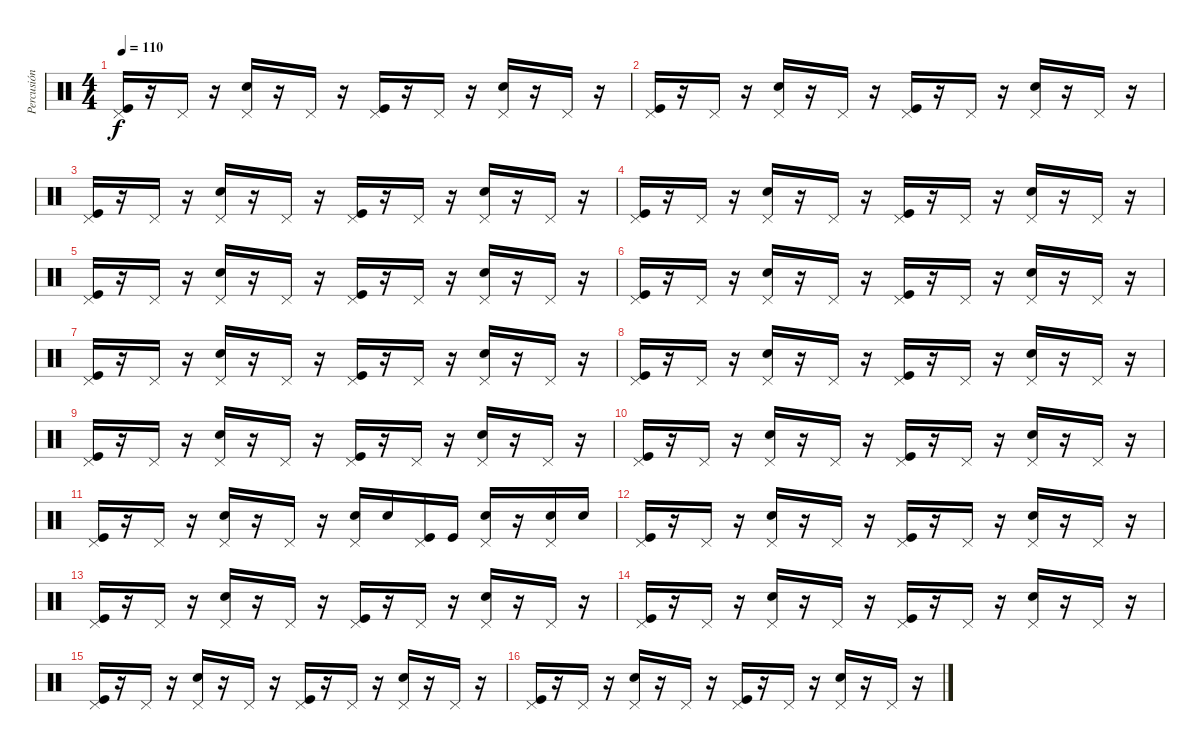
\track ("Percusión" "Percusión") {instrument percussion}
\staff {score}
\articulation defaults
\ts (4 4)
\tempo 110
\clef neutral
\ks c
("Pedal Hi-Hat (hit)" "Kick (hit)").16{dy f} r.16 "Pedal Hi-Hat (hit)".16 r.16 ("Pedal Hi-Hat (hit)" "Electric Snare (hit)").16 r.16 "Pedal Hi-Hat (hit)".16 r.16 ("Pedal Hi-Hat (hit)" "Kick (hit)").16 r.16 "Pedal Hi-Hat (hit)".16 r.16 ("Pedal Hi-Hat (hit)" "Electric Snare (hit)").16 r.16 "Pedal Hi-Hat (hit)".16 r.16 |
("Pedal Hi-Hat (hit)" "Kick (hit)").16 r.16 "Pedal Hi-Hat (hit)".16 r.16 ("Pedal Hi-Hat (hit)" "Electric Snare (hit)").16 r.16 "Pedal Hi-Hat (hit)".16 r.16 ("Pedal Hi-Hat (hit)" "Kick (hit)").16 r.16 "Pedal Hi-Hat (hit)".16 r.16 ("Pedal Hi-Hat (hit)" "Electric Snare (hit)").16 r.16 "Pedal Hi-Hat (hit)".16 r.16 |
("Pedal Hi-Hat (hit)" "Kick (hit)").16 r.16 "Pedal Hi-Hat (hit)".16 r.16 ("Pedal Hi-Hat (hit)" "Electric Snare (hit)").16 r.16 "Pedal Hi-Hat (hit)".16 r.16 ("Pedal Hi-Hat (hit)" "Kick (hit)").16 r.16 "Pedal Hi-Hat (hit)".16 r.16 ("Pedal Hi-Hat (hit)" "Electric Snare (hit)").16 r.16 "Pedal Hi-Hat (hit)".16 r.16 |
("Pedal Hi-Hat (hit)" "Kick (hit)").16 r.16 "Pedal Hi-Hat (hit)".16 r.16 ("Pedal Hi-Hat (hit)" "Electric Snare (hit)").16 r.16 "Pedal Hi-Hat (hit)".16 r.16 ("Pedal Hi-Hat (hit)" "Kick (hit)").16 r.16 "Pedal Hi-Hat (hit)".16 r.16 ("Pedal Hi-Hat (hit)" "Electric Snare (hit)").16 r.16 "Pedal Hi-Hat (hit)".16 r.16 |
("Pedal Hi-Hat (hit)" "Kick (hit)").16 r.16 "Pedal Hi-Hat (hit)".16 r.16 ("Pedal Hi-Hat (hit)" "Electric Snare (hit)").16 r.16 "Pedal Hi-Hat (hit)".16 r.16 ("Pedal Hi-Hat (hit)" "Kick (hit)").16 r.16 "Pedal Hi-Hat (hit)".16 r.16 ("Pedal Hi-Hat (hit)" "Electric Snare (hit)").16 r.16 "Pedal Hi-Hat (hit)".16 r.16 |
("Pedal Hi-Hat (hit)" "Kick (hit)").16 r.16 "Pedal Hi-Hat (hit)".16 r.16 ("Pedal Hi-Hat (hit)" "Electric Snare (hit)").16 r.16 "Pedal Hi-Hat (hit)".16 r.16 ("Pedal Hi-Hat (hit)" "Kick (hit)").16 r.16 "Pedal Hi-Hat (hit)".16 r.16 ("Pedal Hi-Hat (hit)" "Electric Snare (hit)").16 r.16 "Pedal Hi-Hat (hit)".16 r.16 |
("Pedal Hi-Hat (hit)" "Kick (hit)").16 r.16 "Pedal Hi-Hat (hit)".16 r.16 ("Pedal Hi-Hat (hit)" "Electric Snare (hit)").16 r.16 "Pedal Hi-Hat (hit)".16 r.16 ("Pedal Hi-Hat (hit)" "Kick (hit)").16 r.16 "Pedal Hi-Hat (hit)".16 r.16 ("Pedal Hi-Hat (hit)" "Electric Snare (hit)").16 r.16 "Pedal Hi-Hat (hit)".16 r.16 |
("Pedal Hi-Hat (hit)" "Kick (hit)").16 r.16 "Pedal Hi-Hat (hit)".16 r.16 ("Pedal Hi-Hat (hit)" "Electric Snare (hit)").16 r.16 "Pedal Hi-Hat (hit)".16 r.16 ("Pedal Hi-Hat (hit)" "Kick (hit)").16 r.16 "Pedal Hi-Hat (hit)".16 r.16 ("Pedal Hi-Hat (hit)" "Electric Snare (hit)").16 r.16 "Pedal Hi-Hat (hit)".16 r.16 |
("Pedal Hi-Hat (hit)" "Kick (hit)").16 r.16 "Pedal Hi-Hat (hit)".16 r.16 ("Pedal Hi-Hat (hit)" "Electric Snare (hit)").16 r.16 "Pedal Hi-Hat (hit)".16 r.16 ("Pedal Hi-Hat (hit)" "Kick (hit)").16 r.16 "Pedal Hi-Hat (hit)".16 r.16 ("Pedal Hi-Hat (hit)" "Electric Snare (hit)").16 r.16 "Pedal Hi-Hat (hit)".16 r.16 |
("Pedal Hi-Hat (hit)" "Kick (hit)").16 r.16 "Pedal Hi-Hat (hit)".16 r.16 ("Pedal Hi-Hat (hit)" "Electric Snare (hit)").16 r.16 "Pedal Hi-Hat (hit)".16 r.16 ("Pedal Hi-Hat (hit)" "Kick (hit)").16 r.16 "Pedal Hi-Hat (hit)".16 r.16 ("Pedal Hi-Hat (hit)" "Electric Snare (hit)").16 r.16 "Pedal Hi-Hat (hit)".16 r.16 |
("Pedal Hi-Hat (hit)" "Kick (hit)").16 r.16 "Pedal Hi-Hat (hit)".16 r.16 ("Pedal Hi-Hat (hit)" "Electric Snare (hit)").16 r.16 "Pedal Hi-Hat (hit)".16 r.16 ("Pedal Hi-Hat (hit)" "Electric Snare (hit)").16 "Electric Snare (hit)".16 ("Pedal Hi-Hat (hit)" "Kick (hit)").16 "Kick (hit)".16 ("Pedal Hi-Hat (hit)" "Electric Snare (hit)").16 r.16 ("Pedal Hi-Hat (hit)" "Electric Snare (hit)").16 "Electric Snare (hit)".16 |
("Pedal Hi-Hat (hit)" "Kick (hit)").16 r.16 "Pedal Hi-Hat (hit)".16 r.16 ("Pedal Hi-Hat (hit)" "Electric Snare (hit)").16 r.16 "Pedal Hi-Hat (hit)".16 r.16 ("Pedal Hi-Hat (hit)" "Kick (hit)").16 r.16 "Pedal Hi-Hat (hit)".16 r.16 ("Pedal Hi-Hat (hit)" "Electric Snare (hit)").16 r.16 "Pedal Hi-Hat (hit)".16 r.16 |
("Pedal Hi-Hat (hit)" "Kick (hit)").16 r.16 "Pedal Hi-Hat (hit)".16 r.16 ("Pedal Hi-Hat (hit)" "Electric Snare (hit)").16 r.16 "Pedal Hi-Hat (hit)".16 r.16 ("Pedal Hi-Hat (hit)" "Kick (hit)").16 r.16 "Pedal Hi-Hat (hit)".16 r.16 ("Pedal Hi-Hat (hit)" "Electric Snare (hit)").16 r.16 "Pedal Hi-Hat (hit)".16 r.16 |
("Pedal Hi-Hat (hit)" "Kick (hit)").16 r.16 "Pedal Hi-Hat (hit)".16 r.16 ("Pedal Hi-Hat (hit)" "Electric Snare (hit)").16 r.16 "Pedal Hi-Hat (hit)".16 r.16 ("Pedal Hi-Hat (hit)" "Kick (hit)").16 r.16 "Pedal Hi-Hat (hit)".16 r.16 ("Pedal Hi-Hat (hit)" "Electric Snare (hit)").16 r.16 "Pedal Hi-Hat (hit)".16 r.16 |
("Pedal Hi-Hat (hit)" "Kick (hit)").16 r.16 "Pedal Hi-Hat (hit)".16 r.16 ("Pedal Hi-Hat (hit)" "Electric Snare (hit)").16 r.16 "Pedal Hi-Hat (hit)".16 r.16 ("Pedal Hi-Hat (hit)" "Kick (hit)").16 r.16 "Pedal Hi-Hat (hit)".16 r.16 ("Pedal Hi-Hat (hit)" "Electric Snare (hit)").16 r.16 "Pedal Hi-Hat (hit)".16 r.16 |
("Pedal Hi-Hat (hit)" "Kick (hit)").16 r.16 "Pedal Hi-Hat (hit)".16 r.16 ("Pedal Hi-Hat (hit)" "Electric Snare (hit)").16 r.16 "Pedal Hi-Hat (hit)".16 r.16 ("Pedal Hi-Hat (hit)" "Kick (hit)").16 r.16 "Pedal Hi-Hat (hit)".16 r.16 ("Pedal Hi-Hat (hit)" "Electric Snare (hit)").16 r.16 "Pedal Hi-Hat (hit)".16 r.16
